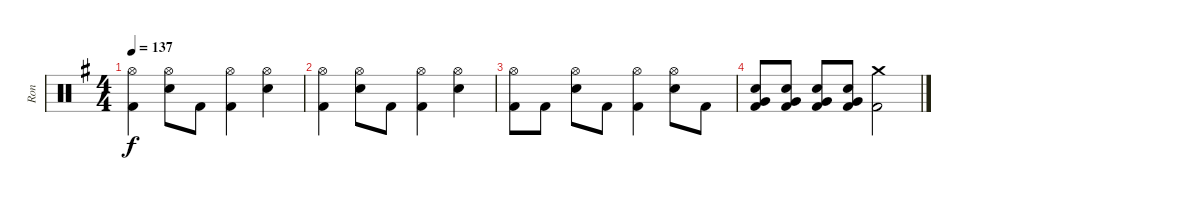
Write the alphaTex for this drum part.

\track ("Ron" "Ron") {instrument percussion}
\staff {score}
\articulation defaults
\ts (4 4)
\tempo 137
\clef neutral
\ks eminor
("Hi-Hat (open)" "Kick (hit) 2").4{dy f} ("Hi-Hat (open)" "Electric Snare (hit)").8 "Kick (hit) 2".8 ("Hi-Hat (open)" "Kick (hit) 2").4 ("Hi-Hat (open)" "Electric Snare (hit)").4 |
("Hi-Hat (open)" "Kick (hit) 2").4 ("Hi-Hat (open)" "Electric Snare (hit)").8 "Kick (hit) 2".8 ("Hi-Hat (open)" "Kick (hit) 2").4 ("Hi-Hat (open)" "Electric Snare (hit)").4 |
("Hi-Hat (open)" "Kick (hit) 2").8 "Kick (hit) 2".8 ("Hi-Hat (open)" "Electric Snare (hit)").8 "Kick (hit) 2".8 ("Hi-Hat (open)" "Kick (hit) 2").4 ("Hi-Hat (open)" "Electric Snare (hit)").8 "Kick (hit) 2".8 |
("Electric Snare (hit)" "Very Low Tom (hit)" "Kick (hit) 2").8 ("Electric Snare (hit)" "Very Low Tom (hit)" "Kick (hit) 2").8 ("Electric Snare (hit)" "Very Low Tom (hit)" "Kick (hit) 2").8 ("Electric Snare (hit)" "Very Low Tom (hit)" "Kick (hit) 2").8 ("Crash medium (hit)" "Kick (hit) 2").2
